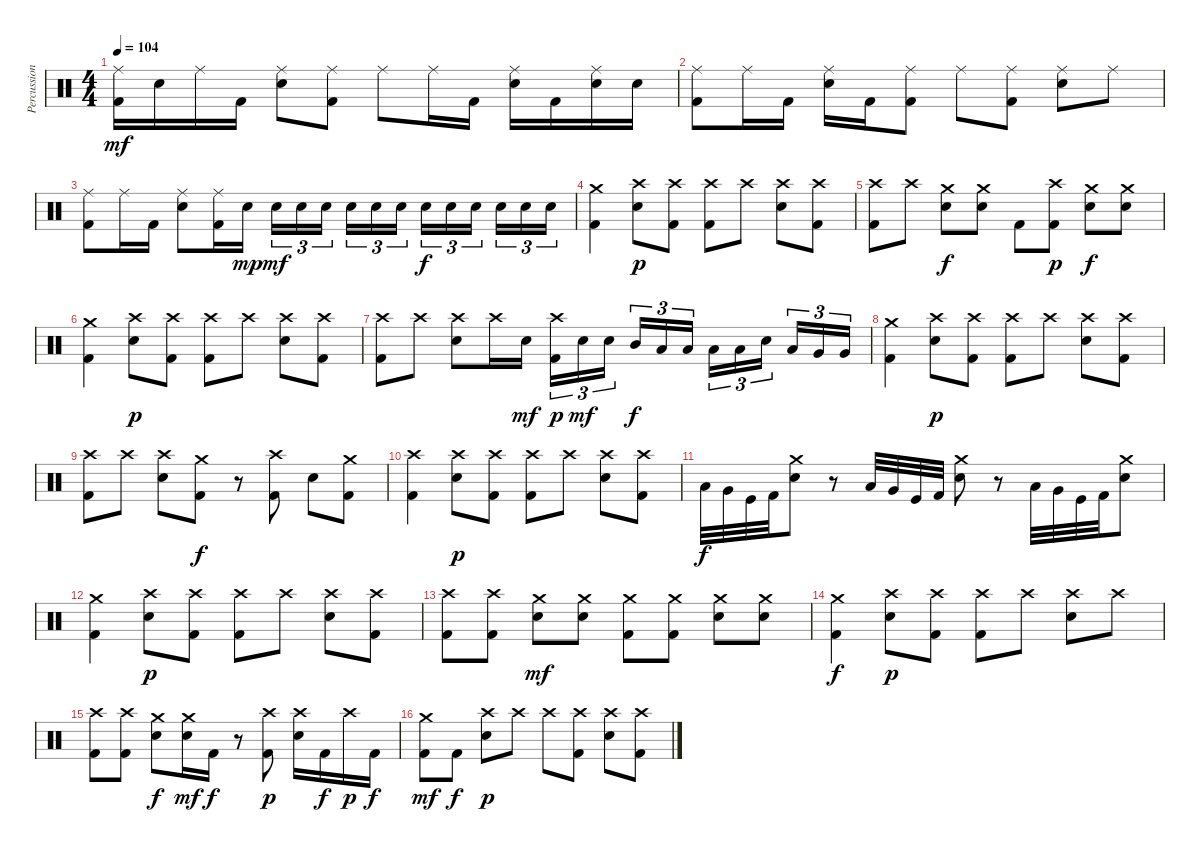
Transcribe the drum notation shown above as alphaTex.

\track ("Percussion" "Percussion") {instrument percussion}
\staff {score}
\articulation defaults
\ts (4 4)
\tempo 104
\clef neutral
\ks c
("Kick (hit) 2" "Ride (middle)").16{dy mf} "Electric Snare (hit)".16 "Ride (middle)".16 "Kick (hit) 2".16 ("Electric Snare (hit)" "Ride (middle)").8 ("Kick (hit) 2" "Ride (middle)").8 "Ride (middle)".8 "Ride (middle)".16 "Kick (hit) 2".16 ("Electric Snare (hit)" "Ride (middle)").16 "Kick (hit) 2".16 ("Electric Snare (hit)" "Ride (middle)").16 "Electric Snare (hit)".16 |
("Kick (hit) 2" "Ride (middle)").8 "Ride (middle)".16 "Kick (hit) 2".16 ("Electric Snare (hit)" "Ride (middle)").16 "Kick (hit) 2".16 ("Kick (hit) 2" "Ride (middle)").8 "Ride (middle)".8 ("Kick (hit) 2" "Ride (middle)").8 ("Electric Snare (hit)" "Ride (middle)").8 "Ride (middle)".8 |
("Kick (hit) 2" "Ride (middle)").8 "Ride (middle)".16 "Kick (hit) 2".16 ("Electric Snare (hit)" "Ride (middle)").8 ("Kick (hit) 2" "Ride (middle)").16 "Electric Snare (hit)".16{dy mp} "Electric Snare (hit)".16{tu (3 2) dy mf} "Electric Snare (hit)".16{tu (3 2)} "Electric Snare (hit)".16{tu (3 2)} "Electric Snare (hit)".16{tu (3 2)} "Electric Snare (hit)".16{tu (3 2)} "Electric Snare (hit)".16{tu (3 2)} "Electric Snare (hit)".16{tu (3 2) dy f} "Electric Snare (hit)".16{tu (3 2)} "Electric Snare (hit)".16{tu (3 2)} "Electric Snare (hit)".16{tu (3 2)} "Electric Snare (hit)".16{tu (3 2)} "Electric Snare (hit)".16{tu (3 2)} |
("Kick (hit) 2" "Crash medium (hit)").4 ("Electric Snare (hit)" "Crash high (hit)").8{dy p} ("Kick (hit) 2" "Crash high (hit)").8 ("Kick (hit) 2" "Crash high (hit)").8 "Crash high (hit)".8 ("Electric Snare (hit)" "Crash high (hit)").8 ("Kick (hit) 2" "Crash high (hit)").8 |
("Kick (hit) 2" "Crash high (hit)").8 "Crash high (hit)".8 ("Electric Snare (hit)" "Crash medium (hit)").8{dy f} ("Electric Snare (hit)" "Crash medium (hit)").8 "Kick (hit) 2".8 ("Kick (hit) 2" "Crash high (hit)").8{dy p} ("Electric Snare (hit)" "Crash medium (hit)").8{dy f} ("Electric Snare (hit)" "Crash medium (hit)").8 |
("Kick (hit) 2" "Crash medium (hit)").4 ("Electric Snare (hit)" "Crash high (hit)").8{dy p} ("Crash high (hit)" "Kick (hit) 2").8 ("Kick (hit) 2" "Crash high (hit)").8 "Crash high (hit)".8 ("Electric Snare (hit)" "Crash high (hit)").8 ("Kick (hit) 2" "Crash high (hit)").8 |
("Kick (hit) 2" "Crash high (hit)").8 "Crash high (hit)".8 ("Electric Snare (hit)" "Crash high (hit)").8 "Crash high (hit)".16 "Electric Snare (hit)".16{dy mf} ("Kick (hit) 2" "Crash high (hit)").16{tu (3 2) dy p} "Electric Snare (hit)".16{tu (3 2) dy mf} "Electric Snare (hit)".16{tu (3 2)} "Mid Tom (hit)".16{tu (3 2) dy f} "Low Tom (hit)".16{tu (3 2)} "Low Tom (hit)".16{tu (3 2)} "Low Tom (hit)".16{tu (3 2)} "Low Tom (hit)".16{tu (3 2)} "Electric Snare (hit)".16{tu (3 2)} "Low Tom (hit)".16{tu (3 2)} "Very Low Tom (hit)".16{tu (3 2)} "Very Low Tom (hit)".16{tu (3 2)} |
("Kick (hit) 2" "Crash medium (hit)").4 ("Electric Snare (hit)" "Crash high (hit)").8{dy p} ("Kick (hit) 2" "Crash high (hit)").8 ("Kick (hit) 2" "Crash high (hit)").8 "Crash high (hit)".8 ("Electric Snare (hit)" "Crash high (hit)").8 ("Kick (hit) 2" "Crash high (hit)").8 |
("Kick (hit) 2" "Crash high (hit)").8 "Crash high (hit)".8 ("Electric Snare (hit)" "Crash high (hit)").8 ("Kick (hit) 2" "Crash medium (hit)").8{dy f} r.8 ("Kick (hit) 2" "Crash high (hit)").8 "Electric Snare (hit)".8 ("Kick (hit) 2" "Crash medium (hit)").8 |
("Kick (hit) 2" "Crash high (hit)").4 ("Electric Snare (hit)" "Crash high (hit)").8{dy p} ("Kick (hit) 2" "Crash high (hit)").8 ("Kick (hit) 2" "Crash high (hit)").8 "Crash high (hit)".8 ("Electric Snare (hit)" "Crash high (hit)").8 ("Kick (hit) 2" "Crash high (hit)").8 |
"Low Floor Tom (hit)".32{dy f} "Very Low Tom (hit)".32 "Kick (hit)".32 "Kick (hit) 2".32 ("Electric Snare (hit)" "Crash medium (hit)").8 r.8 "Low Floor Tom (hit)".32 "Very Low Tom (hit)".32 "Kick (hit)".32 "Kick (hit) 2".32 ("Electric Snare (hit)" "Crash medium (hit)").8 r.8 "Low Floor Tom (hit)".32 "Very Low Tom (hit)".32 "Kick (hit)".32 "Kick (hit) 2".32 ("Electric Snare (hit)" "Crash medium (hit)").8 |
("Kick (hit) 2" "Crash medium (hit)").4 ("Electric Snare (hit)" "Crash high (hit)").8{dy p} ("Kick (hit) 2" "Crash high (hit)").8 ("Kick (hit) 2" "Crash high (hit)").8 "Crash high (hit)".8 ("Electric Snare (hit)" "Crash high (hit)").8 ("Kick (hit) 2" "Crash high (hit)").8 |
("Kick (hit) 2" "Crash high (hit)").8 ("Kick (hit) 2" "Crash high (hit)").8 ("Electric Snare (hit)" "Crash medium (hit)").8{dy mf} ("Electric Snare (hit)" "Crash medium (hit)").8 ("Kick (hit) 2" "Crash medium (hit)").8 ("Kick (hit) 2" "Crash medium (hit)").8 ("Electric Snare (hit)" "Crash medium (hit)").8 ("Electric Snare (hit)" "Crash medium (hit)").8 |
("Kick (hit) 2" "Crash medium (hit)").4{dy f} ("Electric Snare (hit)" "Crash high (hit)").8{dy p} ("Kick (hit) 2" "Crash high (hit)").8 ("Kick (hit) 2" "Crash high (hit)").8 "Crash high (hit)".8 ("Electric Snare (hit)" "Crash high (hit)").8 "Crash high (hit)".8 |
("Kick (hit) 2" "Crash high (hit)").8 ("Kick (hit) 2" "Crash high (hit)").8 ("Electric Snare (hit)" "Crash medium (hit)").8{dy f} ("Electric Snare (hit)" "Crash medium (hit)").16{dy mf} "Kick (hit) 2".16{dy f} r.8 ("Kick (hit) 2" "Crash high (hit)").8{dy p} ("Electric Snare (hit)" "Crash high (hit)").16 "Kick (hit) 2".16{dy f} "Crash high (hit)".16{dy p} "Kick (hit) 2".16{dy f} |
("Kick (hit) 2" "Crash medium (hit)").8{dy mf} "Kick (hit) 2".8{dy f} ("Electric Snare (hit)" "Crash high (hit)").8{dy p} "Crash high (hit)".8 "Crash high (hit)".8 ("Kick (hit) 2" "Crash high (hit)").8 ("Electric Snare (hit)" "Crash high (hit)").8 ("Kick (hit) 2" "Crash high (hit)").8
